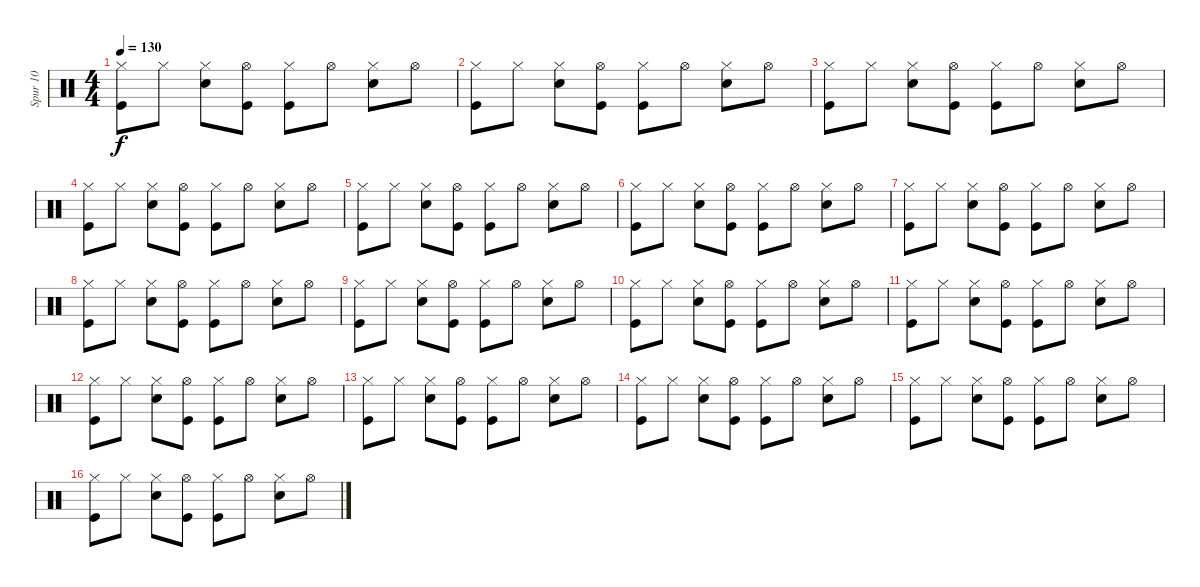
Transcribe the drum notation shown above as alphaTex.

\track ("Spur 10" "Spur 10") {instrument percussion}
\staff {score}
\articulation defaults
\ts (4 4)
\tempo 130
\clef neutral
\ks c
("Kick (hit)" "Hi-Hat (closed)").8{dy f} "Hi-Hat (closed)".8 ("Snare (hit) 2" "Hi-Hat (closed)").8 ("Kick (hit)" "Hi-Hat (open)").8 ("Kick (hit)" "Hi-Hat (closed)").8 "Hi-Hat (open)".8 ("Snare (hit) 2" "Hi-Hat (closed)").8 "Hi-Hat (open)".8 |
("Kick (hit)" "Hi-Hat (closed)").8 "Hi-Hat (closed)".8 ("Snare (hit) 2" "Hi-Hat (closed)").8 ("Kick (hit)" "Hi-Hat (open)").8 ("Kick (hit)" "Hi-Hat (closed)").8 "Hi-Hat (open)".8 ("Snare (hit) 2" "Hi-Hat (closed)").8 "Hi-Hat (open)".8 |
("Kick (hit)" "Hi-Hat (closed)").8 "Hi-Hat (closed)".8 ("Snare (hit) 2" "Hi-Hat (closed)").8 ("Kick (hit)" "Hi-Hat (open)").8 ("Kick (hit)" "Hi-Hat (closed)").8 "Hi-Hat (open)".8 ("Snare (hit) 2" "Hi-Hat (closed)").8 "Hi-Hat (open)".8 |
("Kick (hit)" "Hi-Hat (closed)").8 "Hi-Hat (closed)".8 ("Snare (hit) 2" "Hi-Hat (closed)").8 ("Kick (hit)" "Hi-Hat (open)").8 ("Kick (hit)" "Hi-Hat (closed)").8 "Hi-Hat (open)".8 ("Snare (hit) 2" "Hi-Hat (closed)").8 "Hi-Hat (open)".8 |
("Kick (hit)" "Hi-Hat (closed)").8 "Hi-Hat (closed)".8 ("Snare (hit) 2" "Hi-Hat (closed)").8 ("Kick (hit)" "Hi-Hat (open)").8 ("Kick (hit)" "Hi-Hat (closed)").8 "Hi-Hat (open)".8 ("Snare (hit) 2" "Hi-Hat (closed)").8 "Hi-Hat (open)".8 |
("Kick (hit)" "Hi-Hat (closed)").8 "Hi-Hat (closed)".8 ("Snare (hit) 2" "Hi-Hat (closed)").8 ("Kick (hit)" "Hi-Hat (open)").8 ("Kick (hit)" "Hi-Hat (closed)").8 "Hi-Hat (open)".8 ("Snare (hit) 2" "Hi-Hat (closed)").8 "Hi-Hat (open)".8 |
("Kick (hit)" "Hi-Hat (closed)").8 "Hi-Hat (closed)".8 ("Snare (hit) 2" "Hi-Hat (closed)").8 ("Kick (hit)" "Hi-Hat (open)").8 ("Kick (hit)" "Hi-Hat (closed)").8 "Hi-Hat (open)".8 ("Snare (hit) 2" "Hi-Hat (closed)").8 "Hi-Hat (open)".8 |
("Kick (hit)" "Hi-Hat (closed)").8 "Hi-Hat (closed)".8 ("Snare (hit) 2" "Hi-Hat (closed)").8 ("Kick (hit)" "Hi-Hat (open)").8 ("Kick (hit)" "Hi-Hat (closed)").8 "Hi-Hat (open)".8 ("Snare (hit) 2" "Hi-Hat (closed)").8 "Hi-Hat (open)".8 |
("Kick (hit)" "Hi-Hat (closed)").8 "Hi-Hat (closed)".8 ("Snare (hit) 2" "Hi-Hat (closed)").8 ("Kick (hit)" "Hi-Hat (open)").8 ("Kick (hit)" "Hi-Hat (closed)").8 "Hi-Hat (open)".8 ("Snare (hit) 2" "Hi-Hat (closed)").8 "Hi-Hat (open)".8 |
("Kick (hit)" "Hi-Hat (closed)").8 "Hi-Hat (closed)".8 ("Snare (hit) 2" "Hi-Hat (closed)").8 ("Kick (hit)" "Hi-Hat (open)").8 ("Kick (hit)" "Hi-Hat (closed)").8 "Hi-Hat (open)".8 ("Snare (hit) 2" "Hi-Hat (closed)").8 "Hi-Hat (open)".8 |
("Kick (hit)" "Hi-Hat (closed)").8 "Hi-Hat (closed)".8 ("Snare (hit) 2" "Hi-Hat (closed)").8 ("Kick (hit)" "Hi-Hat (open)").8 ("Kick (hit)" "Hi-Hat (closed)").8 "Hi-Hat (open)".8 ("Snare (hit) 2" "Hi-Hat (closed)").8 "Hi-Hat (open)".8 |
("Kick (hit)" "Hi-Hat (closed)").8 "Hi-Hat (closed)".8 ("Snare (hit) 2" "Hi-Hat (closed)").8 ("Kick (hit)" "Hi-Hat (open)").8 ("Kick (hit)" "Hi-Hat (closed)").8 "Hi-Hat (open)".8 ("Snare (hit) 2" "Hi-Hat (closed)").8 "Hi-Hat (open)".8 |
("Kick (hit)" "Hi-Hat (closed)").8 "Hi-Hat (closed)".8 ("Snare (hit) 2" "Hi-Hat (closed)").8 ("Kick (hit)" "Hi-Hat (open)").8 ("Kick (hit)" "Hi-Hat (closed)").8 "Hi-Hat (open)".8 ("Snare (hit) 2" "Hi-Hat (closed)").8 "Hi-Hat (open)".8 |
("Kick (hit)" "Hi-Hat (closed)").8 "Hi-Hat (closed)".8 ("Snare (hit) 2" "Hi-Hat (closed)").8 ("Kick (hit)" "Hi-Hat (open)").8 ("Kick (hit)" "Hi-Hat (closed)").8 "Hi-Hat (open)".8 ("Snare (hit) 2" "Hi-Hat (closed)").8 "Hi-Hat (open)".8 |
("Kick (hit)" "Hi-Hat (closed)").8 "Hi-Hat (closed)".8 ("Snare (hit) 2" "Hi-Hat (closed)").8 ("Kick (hit)" "Hi-Hat (open)").8 ("Kick (hit)" "Hi-Hat (closed)").8 "Hi-Hat (open)".8 ("Snare (hit) 2" "Hi-Hat (closed)").8 "Hi-Hat (open)".8 |
("Kick (hit)" "Hi-Hat (closed)").8 "Hi-Hat (closed)".8 ("Snare (hit) 2" "Hi-Hat (closed)").8 ("Kick (hit)" "Hi-Hat (open)").8 ("Kick (hit)" "Hi-Hat (closed)").8 "Hi-Hat (open)".8 ("Snare (hit) 2" "Hi-Hat (closed)").8 "Hi-Hat (open)".8
